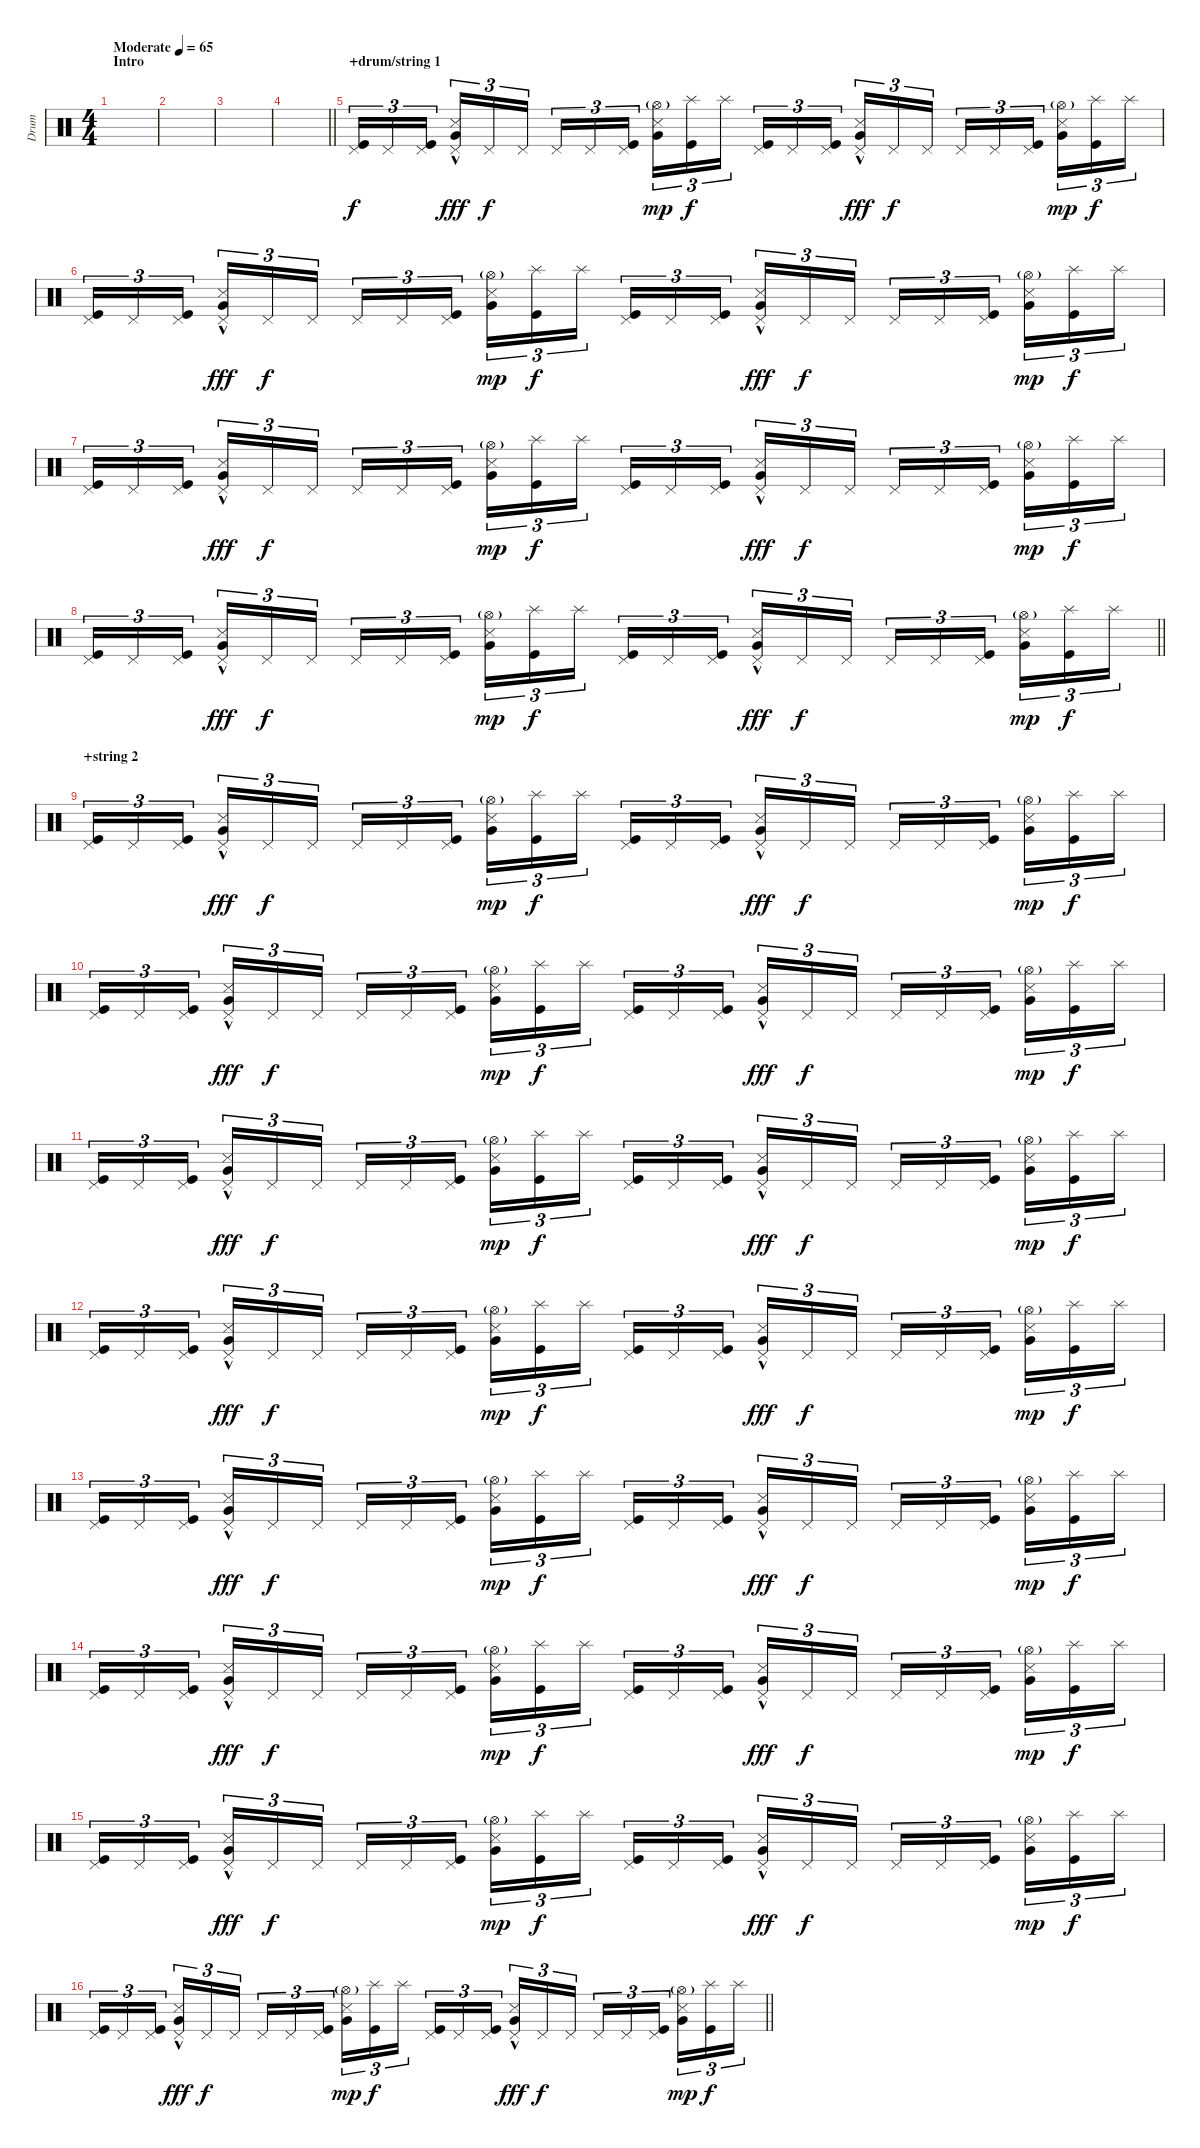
\track ("Drum" "Drum") {instrument percussion}
\staff {score}
\articulation defaults
\ts (4 4)
\section ("" "Intro")
\tempo (65 "Moderate")
\clef neutral
\ks c
|
|
|
\barLineRight lightlight
|
\section ("" "+drum/string 1")
("Kick (hit)" "Pedal Hi-Hat (hit)").16{tu (3 2)} "Pedal Hi-Hat (hit)".16{tu (3 2)} ("Kick (hit)" "Pedal Hi-Hat (hit)").16{tu (3 2) beam splitsecondary} ("Snare (side stick) 3" "Very Low Tom (hit)" "Pedal Hi-Hat (hit)"{hac}).16{tu (3 2) dy fff} "Pedal Hi-Hat (hit)".16{tu (3 2) dy f} "Pedal Hi-Hat (hit)".16{tu (3 2)} "Pedal Hi-Hat (hit)".16{tu (3 2)} "Pedal Hi-Hat (hit)".16{tu (3 2)} ("Kick (hit)" "Pedal Hi-Hat (hit)").16{tu (3 2) beam splitsecondary} ("Snare (side stick) 3" "Very Low Tom (hit)" "Hi-Hat (open)"{g}).16{tu (3 2) dy mp} ("Kick (hit)" "Splash (hit)").16{tu (3 2) dy f} "Splash (hit)".16{tu (3 2)} ("Kick (hit)" "Pedal Hi-Hat (hit)").16{tu (3 2)} "Pedal Hi-Hat (hit)".16{tu (3 2)} ("Kick (hit)" "Pedal Hi-Hat (hit)").16{tu (3 2) beam splitsecondary} ("Snare (side stick) 3" "Very Low Tom (hit)" "Pedal Hi-Hat (hit)"{hac}).16{tu (3 2) dy fff} "Pedal Hi-Hat (hit)".16{tu (3 2) dy f} "Pedal Hi-Hat (hit)".16{tu (3 2)} "Pedal Hi-Hat (hit)".16{tu (3 2)} "Pedal Hi-Hat (hit)".16{tu (3 2)} ("Kick (hit)" "Pedal Hi-Hat (hit)").16{tu (3 2) beam splitsecondary} ("Snare (side stick) 3" "Very Low Tom (hit)" "Hi-Hat (open)"{g}).16{tu (3 2) dy mp} ("Kick (hit)" "Splash (hit)").16{tu (3 2) dy f} "Splash (hit)".16{tu (3 2)} |
("Kick (hit)" "Pedal Hi-Hat (hit)").16{tu (3 2)} "Pedal Hi-Hat (hit)".16{tu (3 2)} ("Kick (hit)" "Pedal Hi-Hat (hit)").16{tu (3 2) beam splitsecondary} ("Snare (side stick) 3" "Very Low Tom (hit)" "Pedal Hi-Hat (hit)"{hac}).16{tu (3 2) dy fff} "Pedal Hi-Hat (hit)".16{tu (3 2) dy f} "Pedal Hi-Hat (hit)".16{tu (3 2)} "Pedal Hi-Hat (hit)".16{tu (3 2)} "Pedal Hi-Hat (hit)".16{tu (3 2)} ("Kick (hit)" "Pedal Hi-Hat (hit)").16{tu (3 2) beam splitsecondary} ("Snare (side stick) 3" "Very Low Tom (hit)" "Hi-Hat (open)"{g}).16{tu (3 2) dy mp} ("Kick (hit)" "Splash (hit)").16{tu (3 2) dy f} "Splash (hit)".16{tu (3 2)} ("Kick (hit)" "Pedal Hi-Hat (hit)").16{tu (3 2)} "Pedal Hi-Hat (hit)".16{tu (3 2)} ("Kick (hit)" "Pedal Hi-Hat (hit)").16{tu (3 2) beam splitsecondary} ("Snare (side stick) 3" "Very Low Tom (hit)" "Pedal Hi-Hat (hit)"{hac}).16{tu (3 2) dy fff} "Pedal Hi-Hat (hit)".16{tu (3 2) dy f} "Pedal Hi-Hat (hit)".16{tu (3 2)} "Pedal Hi-Hat (hit)".16{tu (3 2)} "Pedal Hi-Hat (hit)".16{tu (3 2)} ("Kick (hit)" "Pedal Hi-Hat (hit)").16{tu (3 2) beam splitsecondary} ("Snare (side stick) 3" "Very Low Tom (hit)" "Hi-Hat (open)"{g}).16{tu (3 2) dy mp} ("Kick (hit)" "Splash (hit)").16{tu (3 2) dy f} "Splash (hit)".16{tu (3 2)} |
("Kick (hit)" "Pedal Hi-Hat (hit)").16{tu (3 2)} "Pedal Hi-Hat (hit)".16{tu (3 2)} ("Kick (hit)" "Pedal Hi-Hat (hit)").16{tu (3 2) beam splitsecondary} ("Snare (side stick) 3" "Very Low Tom (hit)" "Pedal Hi-Hat (hit)"{hac}).16{tu (3 2) dy fff} "Pedal Hi-Hat (hit)".16{tu (3 2) dy f} "Pedal Hi-Hat (hit)".16{tu (3 2)} "Pedal Hi-Hat (hit)".16{tu (3 2)} "Pedal Hi-Hat (hit)".16{tu (3 2)} ("Kick (hit)" "Pedal Hi-Hat (hit)").16{tu (3 2) beam splitsecondary} ("Snare (side stick) 3" "Very Low Tom (hit)" "Hi-Hat (open)"{g}).16{tu (3 2) dy mp} ("Kick (hit)" "Splash (hit)").16{tu (3 2) dy f} "Splash (hit)".16{tu (3 2)} ("Kick (hit)" "Pedal Hi-Hat (hit)").16{tu (3 2)} "Pedal Hi-Hat (hit)".16{tu (3 2)} ("Kick (hit)" "Pedal Hi-Hat (hit)").16{tu (3 2) beam splitsecondary} ("Snare (side stick) 3" "Very Low Tom (hit)" "Pedal Hi-Hat (hit)"{hac}).16{tu (3 2) dy fff} "Pedal Hi-Hat (hit)".16{tu (3 2) dy f} "Pedal Hi-Hat (hit)".16{tu (3 2)} "Pedal Hi-Hat (hit)".16{tu (3 2)} "Pedal Hi-Hat (hit)".16{tu (3 2)} ("Kick (hit)" "Pedal Hi-Hat (hit)").16{tu (3 2) beam splitsecondary} ("Snare (side stick) 3" "Very Low Tom (hit)" "Hi-Hat (open)"{g}).16{tu (3 2) dy mp} ("Kick (hit)" "Splash (hit)").16{tu (3 2) dy f} "Splash (hit)".16{tu (3 2)} |
\barLineRight lightlight
("Kick (hit)" "Pedal Hi-Hat (hit)").16{tu (3 2)} "Pedal Hi-Hat (hit)".16{tu (3 2)} ("Kick (hit)" "Pedal Hi-Hat (hit)").16{tu (3 2) beam splitsecondary} ("Snare (side stick) 3" "Very Low Tom (hit)" "Pedal Hi-Hat (hit)"{hac}).16{tu (3 2) dy fff} "Pedal Hi-Hat (hit)".16{tu (3 2) dy f} "Pedal Hi-Hat (hit)".16{tu (3 2)} "Pedal Hi-Hat (hit)".16{tu (3 2)} "Pedal Hi-Hat (hit)".16{tu (3 2)} ("Kick (hit)" "Pedal Hi-Hat (hit)").16{tu (3 2) beam splitsecondary} ("Snare (side stick) 3" "Very Low Tom (hit)" "Hi-Hat (open)"{g}).16{tu (3 2) dy mp} ("Kick (hit)" "Splash (hit)").16{tu (3 2) dy f} "Splash (hit)".16{tu (3 2)} ("Kick (hit)" "Pedal Hi-Hat (hit)").16{tu (3 2)} "Pedal Hi-Hat (hit)".16{tu (3 2)} ("Kick (hit)" "Pedal Hi-Hat (hit)").16{tu (3 2) beam splitsecondary} ("Snare (side stick) 3" "Very Low Tom (hit)" "Pedal Hi-Hat (hit)"{hac}).16{tu (3 2) dy fff} "Pedal Hi-Hat (hit)".16{tu (3 2) dy f} "Pedal Hi-Hat (hit)".16{tu (3 2)} "Pedal Hi-Hat (hit)".16{tu (3 2)} "Pedal Hi-Hat (hit)".16{tu (3 2)} ("Kick (hit)" "Pedal Hi-Hat (hit)").16{tu (3 2) beam splitsecondary} ("Snare (side stick) 3" "Very Low Tom (hit)" "Hi-Hat (open)"{g}).16{tu (3 2) dy mp} ("Kick (hit)" "Splash (hit)").16{tu (3 2) dy f} "Splash (hit)".16{tu (3 2)} |
\section ("" "+string 2")
("Kick (hit)" "Pedal Hi-Hat (hit)").16{tu (3 2)} "Pedal Hi-Hat (hit)".16{tu (3 2)} ("Kick (hit)" "Pedal Hi-Hat (hit)").16{tu (3 2) beam splitsecondary} ("Snare (side stick) 3" "Very Low Tom (hit)" "Pedal Hi-Hat (hit)"{hac}).16{tu (3 2) dy fff} "Pedal Hi-Hat (hit)".16{tu (3 2) dy f} "Pedal Hi-Hat (hit)".16{tu (3 2)} "Pedal Hi-Hat (hit)".16{tu (3 2)} "Pedal Hi-Hat (hit)".16{tu (3 2)} ("Kick (hit)" "Pedal Hi-Hat (hit)").16{tu (3 2) beam splitsecondary} ("Snare (side stick) 3" "Very Low Tom (hit)" "Hi-Hat (open)"{g}).16{tu (3 2) dy mp} ("Kick (hit)" "Splash (hit)").16{tu (3 2) dy f} "Splash (hit)".16{tu (3 2)} ("Kick (hit)" "Pedal Hi-Hat (hit)").16{tu (3 2)} "Pedal Hi-Hat (hit)".16{tu (3 2)} ("Kick (hit)" "Pedal Hi-Hat (hit)").16{tu (3 2) beam splitsecondary} ("Snare (side stick) 3" "Very Low Tom (hit)" "Pedal Hi-Hat (hit)"{hac}).16{tu (3 2) dy fff} "Pedal Hi-Hat (hit)".16{tu (3 2) dy f} "Pedal Hi-Hat (hit)".16{tu (3 2)} "Pedal Hi-Hat (hit)".16{tu (3 2)} "Pedal Hi-Hat (hit)".16{tu (3 2)} ("Kick (hit)" "Pedal Hi-Hat (hit)").16{tu (3 2) beam splitsecondary} ("Snare (side stick) 3" "Very Low Tom (hit)" "Hi-Hat (open)"{g}).16{tu (3 2) dy mp} ("Kick (hit)" "Splash (hit)").16{tu (3 2) dy f} "Splash (hit)".16{tu (3 2)} |
("Kick (hit)" "Pedal Hi-Hat (hit)").16{tu (3 2)} "Pedal Hi-Hat (hit)".16{tu (3 2)} ("Kick (hit)" "Pedal Hi-Hat (hit)").16{tu (3 2) beam splitsecondary} ("Snare (side stick) 3" "Very Low Tom (hit)" "Pedal Hi-Hat (hit)"{hac}).16{tu (3 2) dy fff} "Pedal Hi-Hat (hit)".16{tu (3 2) dy f} "Pedal Hi-Hat (hit)".16{tu (3 2)} "Pedal Hi-Hat (hit)".16{tu (3 2)} "Pedal Hi-Hat (hit)".16{tu (3 2)} ("Kick (hit)" "Pedal Hi-Hat (hit)").16{tu (3 2) beam splitsecondary} ("Snare (side stick) 3" "Very Low Tom (hit)" "Hi-Hat (open)"{g}).16{tu (3 2) dy mp} ("Kick (hit)" "Splash (hit)").16{tu (3 2) dy f} "Splash (hit)".16{tu (3 2)} ("Kick (hit)" "Pedal Hi-Hat (hit)").16{tu (3 2)} "Pedal Hi-Hat (hit)".16{tu (3 2)} ("Kick (hit)" "Pedal Hi-Hat (hit)").16{tu (3 2) beam splitsecondary} ("Snare (side stick) 3" "Very Low Tom (hit)" "Pedal Hi-Hat (hit)"{hac}).16{tu (3 2) dy fff} "Pedal Hi-Hat (hit)".16{tu (3 2) dy f} "Pedal Hi-Hat (hit)".16{tu (3 2)} "Pedal Hi-Hat (hit)".16{tu (3 2)} "Pedal Hi-Hat (hit)".16{tu (3 2)} ("Kick (hit)" "Pedal Hi-Hat (hit)").16{tu (3 2) beam splitsecondary} ("Snare (side stick) 3" "Very Low Tom (hit)" "Hi-Hat (open)"{g}).16{tu (3 2) dy mp} ("Kick (hit)" "Splash (hit)").16{tu (3 2) dy f} "Splash (hit)".16{tu (3 2)} |
("Kick (hit)" "Pedal Hi-Hat (hit)").16{tu (3 2)} "Pedal Hi-Hat (hit)".16{tu (3 2)} ("Kick (hit)" "Pedal Hi-Hat (hit)").16{tu (3 2) beam splitsecondary} ("Snare (side stick) 3" "Very Low Tom (hit)" "Pedal Hi-Hat (hit)"{hac}).16{tu (3 2) dy fff} "Pedal Hi-Hat (hit)".16{tu (3 2) dy f} "Pedal Hi-Hat (hit)".16{tu (3 2)} "Pedal Hi-Hat (hit)".16{tu (3 2)} "Pedal Hi-Hat (hit)".16{tu (3 2)} ("Kick (hit)" "Pedal Hi-Hat (hit)").16{tu (3 2) beam splitsecondary} ("Snare (side stick) 3" "Very Low Tom (hit)" "Hi-Hat (open)"{g}).16{tu (3 2) dy mp} ("Kick (hit)" "Splash (hit)").16{tu (3 2) dy f} "Splash (hit)".16{tu (3 2)} ("Kick (hit)" "Pedal Hi-Hat (hit)").16{tu (3 2)} "Pedal Hi-Hat (hit)".16{tu (3 2)} ("Kick (hit)" "Pedal Hi-Hat (hit)").16{tu (3 2) beam splitsecondary} ("Snare (side stick) 3" "Very Low Tom (hit)" "Pedal Hi-Hat (hit)"{hac}).16{tu (3 2) dy fff} "Pedal Hi-Hat (hit)".16{tu (3 2) dy f} "Pedal Hi-Hat (hit)".16{tu (3 2)} "Pedal Hi-Hat (hit)".16{tu (3 2)} "Pedal Hi-Hat (hit)".16{tu (3 2)} ("Kick (hit)" "Pedal Hi-Hat (hit)").16{tu (3 2) beam splitsecondary} ("Snare (side stick) 3" "Very Low Tom (hit)" "Hi-Hat (open)"{g}).16{tu (3 2) dy mp} ("Kick (hit)" "Splash (hit)").16{tu (3 2) dy f} "Splash (hit)".16{tu (3 2)} |
("Kick (hit)" "Pedal Hi-Hat (hit)").16{tu (3 2)} "Pedal Hi-Hat (hit)".16{tu (3 2)} ("Kick (hit)" "Pedal Hi-Hat (hit)").16{tu (3 2) beam splitsecondary} ("Snare (side stick) 3" "Very Low Tom (hit)" "Pedal Hi-Hat (hit)"{hac}).16{tu (3 2) dy fff} "Pedal Hi-Hat (hit)".16{tu (3 2) dy f} "Pedal Hi-Hat (hit)".16{tu (3 2)} "Pedal Hi-Hat (hit)".16{tu (3 2)} "Pedal Hi-Hat (hit)".16{tu (3 2)} ("Kick (hit)" "Pedal Hi-Hat (hit)").16{tu (3 2) beam splitsecondary} ("Snare (side stick) 3" "Very Low Tom (hit)" "Hi-Hat (open)"{g}).16{tu (3 2) dy mp} ("Kick (hit)" "Splash (hit)").16{tu (3 2) dy f} "Splash (hit)".16{tu (3 2)} ("Kick (hit)" "Pedal Hi-Hat (hit)").16{tu (3 2)} "Pedal Hi-Hat (hit)".16{tu (3 2)} ("Kick (hit)" "Pedal Hi-Hat (hit)").16{tu (3 2) beam splitsecondary} ("Snare (side stick) 3" "Very Low Tom (hit)" "Pedal Hi-Hat (hit)"{hac}).16{tu (3 2) dy fff} "Pedal Hi-Hat (hit)".16{tu (3 2) dy f} "Pedal Hi-Hat (hit)".16{tu (3 2)} "Pedal Hi-Hat (hit)".16{tu (3 2)} "Pedal Hi-Hat (hit)".16{tu (3 2)} ("Kick (hit)" "Pedal Hi-Hat (hit)").16{tu (3 2) beam splitsecondary} ("Snare (side stick) 3" "Very Low Tom (hit)" "Hi-Hat (open)"{g}).16{tu (3 2) dy mp} ("Kick (hit)" "Splash (hit)").16{tu (3 2) dy f} "Splash (hit)".16{tu (3 2)} |
("Kick (hit)" "Pedal Hi-Hat (hit)").16{tu (3 2)} "Pedal Hi-Hat (hit)".16{tu (3 2)} ("Kick (hit)" "Pedal Hi-Hat (hit)").16{tu (3 2) beam splitsecondary} ("Snare (side stick) 3" "Very Low Tom (hit)" "Pedal Hi-Hat (hit)"{hac}).16{tu (3 2) dy fff} "Pedal Hi-Hat (hit)".16{tu (3 2) dy f} "Pedal Hi-Hat (hit)".16{tu (3 2)} "Pedal Hi-Hat (hit)".16{tu (3 2)} "Pedal Hi-Hat (hit)".16{tu (3 2)} ("Kick (hit)" "Pedal Hi-Hat (hit)").16{tu (3 2) beam splitsecondary} ("Snare (side stick) 3" "Very Low Tom (hit)" "Hi-Hat (open)"{g}).16{tu (3 2) dy mp} ("Kick (hit)" "Splash (hit)").16{tu (3 2) dy f} "Splash (hit)".16{tu (3 2)} ("Kick (hit)" "Pedal Hi-Hat (hit)").16{tu (3 2)} "Pedal Hi-Hat (hit)".16{tu (3 2)} ("Kick (hit)" "Pedal Hi-Hat (hit)").16{tu (3 2) beam splitsecondary} ("Snare (side stick) 3" "Very Low Tom (hit)" "Pedal Hi-Hat (hit)"{hac}).16{tu (3 2) dy fff} "Pedal Hi-Hat (hit)".16{tu (3 2) dy f} "Pedal Hi-Hat (hit)".16{tu (3 2)} "Pedal Hi-Hat (hit)".16{tu (3 2)} "Pedal Hi-Hat (hit)".16{tu (3 2)} ("Kick (hit)" "Pedal Hi-Hat (hit)").16{tu (3 2) beam splitsecondary} ("Snare (side stick) 3" "Very Low Tom (hit)" "Hi-Hat (open)"{g}).16{tu (3 2) dy mp} ("Kick (hit)" "Splash (hit)").16{tu (3 2) dy f} "Splash (hit)".16{tu (3 2)} |
("Kick (hit)" "Pedal Hi-Hat (hit)").16{tu (3 2)} "Pedal Hi-Hat (hit)".16{tu (3 2)} ("Kick (hit)" "Pedal Hi-Hat (hit)").16{tu (3 2) beam splitsecondary} ("Snare (side stick) 3" "Very Low Tom (hit)" "Pedal Hi-Hat (hit)"{hac}).16{tu (3 2) dy fff} "Pedal Hi-Hat (hit)".16{tu (3 2) dy f} "Pedal Hi-Hat (hit)".16{tu (3 2)} "Pedal Hi-Hat (hit)".16{tu (3 2)} "Pedal Hi-Hat (hit)".16{tu (3 2)} ("Kick (hit)" "Pedal Hi-Hat (hit)").16{tu (3 2) beam splitsecondary} ("Snare (side stick) 3" "Very Low Tom (hit)" "Hi-Hat (open)"{g}).16{tu (3 2) dy mp} ("Kick (hit)" "Splash (hit)").16{tu (3 2) dy f} "Splash (hit)".16{tu (3 2)} ("Kick (hit)" "Pedal Hi-Hat (hit)").16{tu (3 2)} "Pedal Hi-Hat (hit)".16{tu (3 2)} ("Kick (hit)" "Pedal Hi-Hat (hit)").16{tu (3 2) beam splitsecondary} ("Snare (side stick) 3" "Very Low Tom (hit)" "Pedal Hi-Hat (hit)"{hac}).16{tu (3 2) dy fff} "Pedal Hi-Hat (hit)".16{tu (3 2) dy f} "Pedal Hi-Hat (hit)".16{tu (3 2)} "Pedal Hi-Hat (hit)".16{tu (3 2)} "Pedal Hi-Hat (hit)".16{tu (3 2)} ("Kick (hit)" "Pedal Hi-Hat (hit)").16{tu (3 2) beam splitsecondary} ("Snare (side stick) 3" "Very Low Tom (hit)" "Hi-Hat (open)"{g}).16{tu (3 2) dy mp} ("Kick (hit)" "Splash (hit)").16{tu (3 2) dy f} "Splash (hit)".16{tu (3 2)} |
("Kick (hit)" "Pedal Hi-Hat (hit)").16{tu (3 2)} "Pedal Hi-Hat (hit)".16{tu (3 2)} ("Kick (hit)" "Pedal Hi-Hat (hit)").16{tu (3 2) beam splitsecondary} ("Snare (side stick) 3" "Very Low Tom (hit)" "Pedal Hi-Hat (hit)"{hac}).16{tu (3 2) dy fff} "Pedal Hi-Hat (hit)".16{tu (3 2) dy f} "Pedal Hi-Hat (hit)".16{tu (3 2)} "Pedal Hi-Hat (hit)".16{tu (3 2)} "Pedal Hi-Hat (hit)".16{tu (3 2)} ("Kick (hit)" "Pedal Hi-Hat (hit)").16{tu (3 2) beam splitsecondary} ("Snare (side stick) 3" "Very Low Tom (hit)" "Hi-Hat (open)"{g}).16{tu (3 2) dy mp} ("Kick (hit)" "Splash (hit)").16{tu (3 2) dy f} "Splash (hit)".16{tu (3 2)} ("Kick (hit)" "Pedal Hi-Hat (hit)").16{tu (3 2)} "Pedal Hi-Hat (hit)".16{tu (3 2)} ("Kick (hit)" "Pedal Hi-Hat (hit)").16{tu (3 2) beam splitsecondary} ("Snare (side stick) 3" "Very Low Tom (hit)" "Pedal Hi-Hat (hit)"{hac}).16{tu (3 2) dy fff} "Pedal Hi-Hat (hit)".16{tu (3 2) dy f} "Pedal Hi-Hat (hit)".16{tu (3 2)} "Pedal Hi-Hat (hit)".16{tu (3 2)} "Pedal Hi-Hat (hit)".16{tu (3 2)} ("Kick (hit)" "Pedal Hi-Hat (hit)").16{tu (3 2) beam splitsecondary} ("Snare (side stick) 3" "Very Low Tom (hit)" "Hi-Hat (open)"{g}).16{tu (3 2) dy mp} ("Kick (hit)" "Splash (hit)").16{tu (3 2) dy f} "Splash (hit)".16{tu (3 2)} |
\barLineRight lightlight
("Kick (hit)" "Pedal Hi-Hat (hit)").16{tu (3 2)} "Pedal Hi-Hat (hit)".16{tu (3 2)} ("Kick (hit)" "Pedal Hi-Hat (hit)").16{tu (3 2) beam splitsecondary} ("Snare (side stick) 3" "Very Low Tom (hit)" "Pedal Hi-Hat (hit)"{hac}).16{tu (3 2) dy fff} "Pedal Hi-Hat (hit)".16{tu (3 2) dy f} "Pedal Hi-Hat (hit)".16{tu (3 2)} "Pedal Hi-Hat (hit)".16{tu (3 2)} "Pedal Hi-Hat (hit)".16{tu (3 2)} ("Kick (hit)" "Pedal Hi-Hat (hit)").16{tu (3 2) beam splitsecondary} ("Snare (side stick) 3" "Very Low Tom (hit)" "Hi-Hat (open)"{g}).16{tu (3 2) dy mp} ("Kick (hit)" "Splash (hit)").16{tu (3 2) dy f} "Splash (hit)".16{tu (3 2)} ("Kick (hit)" "Pedal Hi-Hat (hit)").16{tu (3 2)} "Pedal Hi-Hat (hit)".16{tu (3 2)} ("Kick (hit)" "Pedal Hi-Hat (hit)").16{tu (3 2) beam splitsecondary} ("Snare (side stick) 3" "Very Low Tom (hit)" "Pedal Hi-Hat (hit)"{hac}).16{tu (3 2) dy fff} "Pedal Hi-Hat (hit)".16{tu (3 2) dy f} "Pedal Hi-Hat (hit)".16{tu (3 2)} "Pedal Hi-Hat (hit)".16{tu (3 2)} "Pedal Hi-Hat (hit)".16{tu (3 2)} ("Kick (hit)" "Pedal Hi-Hat (hit)").16{tu (3 2) beam splitsecondary} ("Snare (side stick) 3" "Very Low Tom (hit)" "Hi-Hat (open)"{g}).16{tu (3 2) dy mp} ("Kick (hit)" "Splash (hit)").16{tu (3 2) dy f} "Splash (hit)".16{tu (3 2)}
